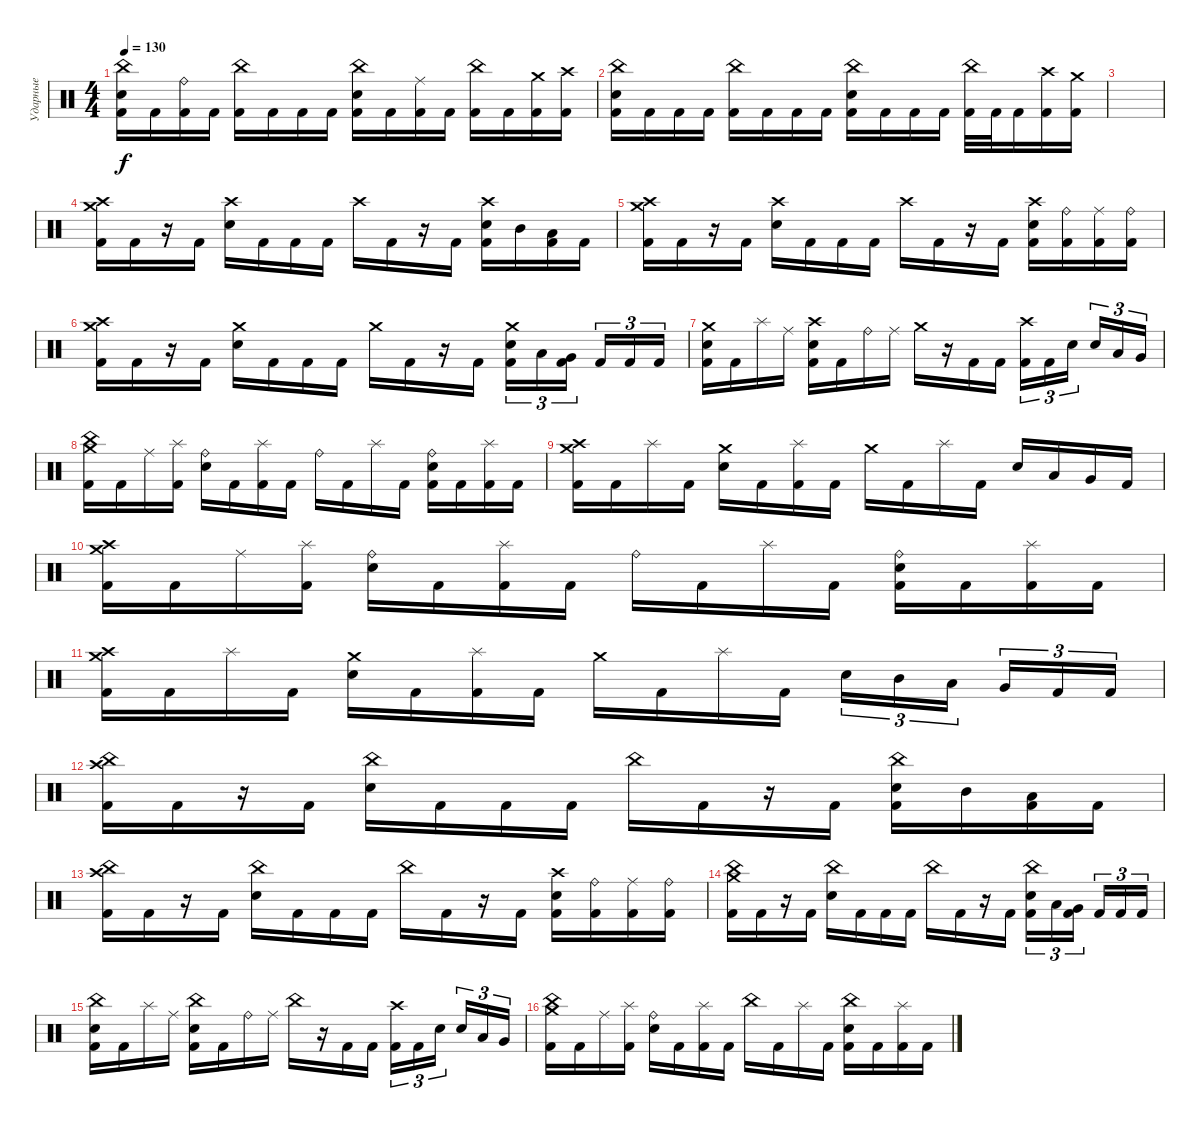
\track ("Ударные" "Ударные") {instrument percussion}
\staff {score}
\articulation defaults
\ts (4 4)
\tempo 130
\clef neutral
\ks c
("China (hit)" "Electric Snare (hit)" "Kick (hit) 2").16{dy f} "Kick (hit) 2".16 ("Ride (bell)" "Kick (hit) 2").16 "Kick (hit) 2".16 ("China (hit)" "Kick (hit) 2").16 "Kick (hit) 2".16 "Kick (hit) 2".16 "Kick (hit) 2".16 ("China (hit)" "Electric Snare (hit)" "Kick (hit) 2").16 "Kick (hit) 2".16 ("Ride (middle)" "Kick (hit) 2").16 "Kick (hit) 2".16 ("China (hit)" "Kick (hit) 2").16 "Kick (hit) 2".16 ("Crash medium (hit)" "Kick (hit) 2").16 ("Crash high (hit)" "Kick (hit) 2").16 |
("China (hit)" "Electric Snare (hit)" "Kick (hit) 2").16 "Kick (hit) 2".16 "Kick (hit) 2".16 "Kick (hit) 2".16 ("China (hit)" "Kick (hit) 2").16 "Kick (hit) 2".16 "Kick (hit) 2".16 "Kick (hit) 2".16 ("China (hit)" "Electric Snare (hit)" "Kick (hit) 2").16 "Kick (hit) 2".16 "Kick (hit) 2".16 "Kick (hit) 2".16 ("China (hit)" "Kick (hit) 2").32 "Kick (hit) 2".32 "Kick (hit) 2".16 ("Crash high (hit)" "Kick (hit) 2").16 ("Crash medium (hit)" "Kick (hit) 2").16 |
|
("Crash medium (hit)" "Crash high (hit)" "Kick (hit) 2").16 "Kick (hit) 2".16 r.16 "Kick (hit) 2".16 ("Crash high (hit)" "Electric Snare (hit)").16 "Kick (hit) 2".16 "Kick (hit) 2".16 "Kick (hit) 2".16 "Crash high (hit)".16 "Kick (hit) 2".16 r.16 "Kick (hit) 2".16 ("Crash high (hit)" "Electric Snare (hit)" "Kick (hit) 2").16 "Mid Tom (hit)".16 ("Low Tom (hit)" "Kick (hit) 2").16 "Kick (hit) 2".16 |
("Crash medium (hit)" "Crash high (hit)" "Kick (hit) 2").16 "Kick (hit) 2".16 r.16 "Kick (hit) 2".16 ("Crash high (hit)" "Electric Snare (hit)").16 "Kick (hit) 2".16 "Kick (hit) 2".16 "Kick (hit) 2".16 "Crash high (hit)".16 "Kick (hit) 2".16 r.16 "Kick (hit) 2".16 ("Crash high (hit)" "Electric Snare (hit)" "Kick (hit) 2").16 ("Ride (bell)" "Kick (hit) 2").16 ("Ride (middle)" "Kick (hit) 2").16 ("Ride (bell)" "Kick (hit) 2").16 |
("Crash high (hit)" "Crash medium (hit)" "Kick (hit) 2").16 "Kick (hit) 2".16 r.16 "Kick (hit) 2".16 ("Crash medium (hit)" "Electric Snare (hit)").16 "Kick (hit) 2".16 "Kick (hit) 2".16 "Kick (hit) 2".16 "Crash medium (hit)".16 "Kick (hit) 2".16 r.16 "Kick (hit) 2".16 ("Crash medium (hit)" "Electric Snare (hit)" "Kick (hit) 2").16{tu (3 2)} "Low Tom (hit)".16{tu (3 2)} ("Very Low Tom (hit)" "Kick (hit) 2").16{tu (3 2) beam splitsecondary} "Kick (hit) 2".16{tu (3 2)} "Kick (hit) 2".16{tu (3 2)} "Kick (hit) 2".16{tu (3 2)} |
("Crash medium (hit)" "Electric Snare (hit)" "Kick (hit) 2").16 "Kick (hit) 2".16 "Splash (hit)".16 "Ride (middle)".16 ("Crash high (hit)" "Electric Snare (hit)" "Kick (hit) 2").16 "Kick (hit) 2".16 "Ride (bell)".16 "Ride (middle)".16 "Crash medium (hit)".16 r.16 "Kick (hit) 2".16 "Kick (hit) 2".16 ("Crash high (hit)" "Kick (hit) 2").16{tu (3 2)} "Kick (hit) 2".16{tu (3 2)} "Electric Snare (hit)".16{tu (3 2) beam splitsecondary} "Electric Snare (hit)".16{tu (3 2)} "Low Tom (hit)".16{tu (3 2)} "Very Low Tom (hit)".16{tu (3 2)} |
("Crash medium (hit)" "China (hit)" "Kick (hit) 2").16 "Kick (hit) 2".16 "Ride (middle)".16 ("Splash (hit)" "Kick (hit) 2").16 ("Ride (bell)" "Electric Snare (hit)").16 "Kick (hit) 2".16 ("Splash (hit)" "Kick (hit) 2").16 "Kick (hit) 2".16 "Ride (bell)".16 "Kick (hit) 2".16 "Splash (hit)".16 "Kick (hit) 2".16 ("Ride (bell)" "Electric Snare (hit)" "Kick (hit) 2").16 "Kick (hit) 2".16 ("Splash (hit)" "Kick (hit) 2").16 "Kick (hit) 2".16 |
("Crash medium (hit)" "Crash high (hit)" "Kick (hit) 2").16 "Kick (hit) 2".16 "Splash (hit)".16 "Kick (hit) 2".16 ("Crash medium (hit)" "Electric Snare (hit)").16 "Kick (hit) 2".16 ("Splash (hit)" "Kick (hit) 2").16 "Kick (hit) 2".16 "Crash medium (hit)".16 "Kick (hit) 2".16 "Splash (hit)".16 "Kick (hit) 2".16 "Electric Snare (hit)".16 "Low Tom (hit)".16 "Very Low Tom (hit)".16 "Kick (hit) 2".16 |
("Crash high (hit)" "Crash medium (hit)" "Kick (hit) 2").16 "Kick (hit) 2".16 "Ride (middle)".16 ("Splash (hit)" "Kick (hit) 2").16 ("Ride (bell)" "Electric Snare (hit)").16 "Kick (hit) 2".16 ("Splash (hit)" "Kick (hit) 2").16 "Kick (hit) 2".16 "Ride (bell)".16 "Kick (hit) 2".16 "Splash (hit)".16 "Kick (hit) 2".16 ("Ride (bell)" "Electric Snare (hit)" "Kick (hit) 2").16 "Kick (hit) 2".16 ("Splash (hit)" "Kick (hit) 2").16 "Kick (hit) 2".16 |
("Crash medium (hit)" "Crash high (hit)" "Kick (hit) 2").16 "Kick (hit) 2".16 "Splash (hit)".16 "Kick (hit) 2".16 ("Crash medium (hit)" "Electric Snare (hit)").16 "Kick (hit) 2".16 ("Splash (hit)" "Kick (hit) 2").16 "Kick (hit) 2".16 "Crash medium (hit)".16 "Kick (hit) 2".16 "Splash (hit)".16 "Kick (hit) 2".16 "Electric Snare (hit)".16{tu (3 2)} "Mid Tom (hit)".16{tu (3 2)} "Low Tom (hit)".16{tu (3 2) beam splitsecondary} "Very Low Tom (hit)".16{tu (3 2)} "Kick (hit) 2".16{tu (3 2)} "Kick (hit) 2".16{tu (3 2)} |
("China (hit)" "Crash high (hit)" "Kick (hit) 2").16 "Kick (hit) 2".16 r.16 "Kick (hit) 2".16 ("China (hit)" "Electric Snare (hit)").16 "Kick (hit) 2".16 "Kick (hit) 2".16 "Kick (hit) 2".16 "China (hit)".16 "Kick (hit) 2".16 r.16 "Kick (hit) 2".16 ("China (hit)" "Electric Snare (hit)" "Kick (hit) 2").16 "Mid Tom (hit)".16 ("Low Tom (hit)" "Kick (hit) 2").16 "Kick (hit) 2".16 |
("China (hit)" "Crash high (hit)" "Kick (hit) 2").16 "Kick (hit) 2".16 r.16 "Kick (hit) 2".16 ("China (hit)" "Electric Snare (hit)").16 "Kick (hit) 2".16 "Kick (hit) 2".16 "Kick (hit) 2".16 "China (hit)".16 "Kick (hit) 2".16 r.16 "Kick (hit) 2".16 ("Crash high (hit)" "Electric Snare (hit)" "Kick (hit) 2").16 ("Ride (bell)" "Kick (hit) 2").16 ("Ride (middle)" "Kick (hit) 2").16 ("Ride (bell)" "Kick (hit) 2").16 |
("China (hit)" "Crash medium (hit)" "Kick (hit) 2").16 "Kick (hit) 2".16 r.16 "Kick (hit) 2".16 ("China (hit)" "Electric Snare (hit)").16 "Kick (hit) 2".16 "Kick (hit) 2".16 "Kick (hit) 2".16 "China (hit)".16 "Kick (hit) 2".16 r.16 "Kick (hit) 2".16 ("China (hit)" "Electric Snare (hit)" "Kick (hit) 2").16{tu (3 2)} "Low Tom (hit)".16{tu (3 2)} ("Very Low Tom (hit)" "Kick (hit) 2").16{tu (3 2) beam splitsecondary} "Kick (hit) 2".16{tu (3 2)} "Kick (hit) 2".16{tu (3 2)} "Kick (hit) 2".16{tu (3 2)} |
("China (hit)" "Electric Snare (hit)" "Kick (hit) 2").16 "Kick (hit) 2".16 "Splash (hit)".16 "Ride (middle)".16 ("China (hit)" "Electric Snare (hit)" "Kick (hit) 2").16 "Kick (hit) 2".16 "Ride (bell)".16 "Ride (middle)".16 "China (hit)".16 r.16 "Kick (hit) 2".16 "Kick (hit) 2".16 ("Crash high (hit)" "Kick (hit) 2").16{tu (3 2)} "Kick (hit) 2".16{tu (3 2)} "Electric Snare (hit)".16{tu (3 2) beam splitsecondary} "Electric Snare (hit)".16{tu (3 2)} "Low Tom (hit)".16{tu (3 2)} "Very Low Tom (hit)".16{tu (3 2)} |
("Crash medium (hit)" "China (hit)" "Kick (hit) 2").16 "Kick (hit) 2".16 "Ride (middle)".16 ("Splash (hit)" "Kick (hit) 2").16 ("Ride (bell)" "Electric Snare (hit)").16 "Kick (hit) 2".16 ("Splash (hit)" "Kick (hit) 2").16 "Kick (hit) 2".16 "China (hit)".16 "Kick (hit) 2".16 "Splash (hit)".16 "Kick (hit) 2".16 ("China (hit)" "Electric Snare (hit)" "Kick (hit) 2").16 "Kick (hit) 2".16 ("Splash (hit)" "Kick (hit) 2").16 "Kick (hit) 2".16
